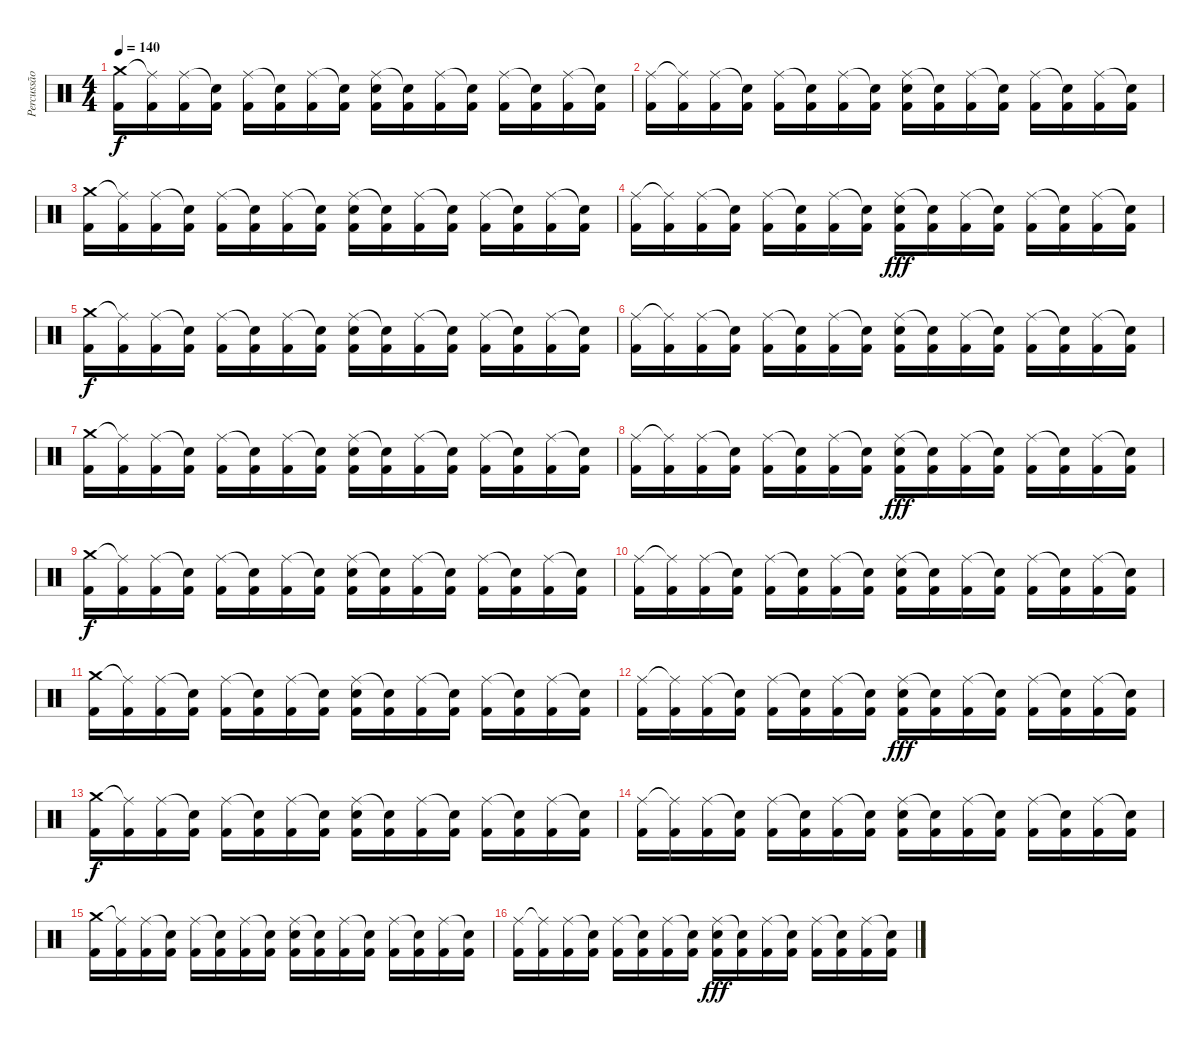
\track ("Percussão" "Percussão") {instrument percussion}
\staff {score}
\articulation defaults
\ts (4 4)
\tempo 140
\clef neutral
\ks c
("Crash medium (hit)" "Kick (hit) 2").16{dy f} ("Ride (middle)"{t} "Kick (hit) 2").16 ("Ride (middle)" "Kick (hit) 2").16 ("Snare (hit)"{t} "Kick (hit) 2").16 ("Ride (middle)" "Kick (hit) 2").16 ("Snare (hit)"{t} "Kick (hit) 2").16 ("Ride (middle)" "Kick (hit) 2").16 ("Snare (hit)"{t} "Kick (hit) 2").16 ("Ride (middle)" "Electric Snare (hit)" "Kick (hit) 2").16 ("Snare (hit)"{t} "Kick (hit) 2").16 ("Ride (middle)" "Kick (hit) 2").16 ("Snare (hit)"{t} "Kick (hit) 2").16 ("Ride (middle)" "Kick (hit) 2").16 ("Snare (hit)"{t} "Kick (hit) 2").16 ("Ride (middle)" "Kick (hit) 2").16 ("Snare (hit)"{t} "Kick (hit) 2").16 |
("Ride (middle)" "Kick (hit) 2").16 ("Ride (middle)"{t} "Kick (hit) 2").16 ("Ride (middle)" "Kick (hit) 2").16 ("Snare (hit)"{t} "Kick (hit) 2").16 ("Ride (middle)" "Kick (hit) 2").16 ("Snare (hit)"{t} "Kick (hit) 2").16 ("Ride (middle)" "Kick (hit) 2").16 ("Snare (hit)"{t} "Kick (hit) 2").16 ("Ride (middle)" "Electric Snare (hit)" "Kick (hit) 2").16 ("Snare (hit)"{t} "Kick (hit) 2").16 ("Ride (middle)" "Kick (hit) 2").16 ("Snare (hit)"{t} "Kick (hit) 2").16 ("Ride (middle)" "Kick (hit) 2").16 ("Snare (hit)"{t} "Kick (hit) 2").16 ("Ride (middle)" "Kick (hit) 2").16 ("Snare (hit)"{t} "Kick (hit) 2").16 |
("Crash medium (hit)" "Kick (hit) 2").16 ("Ride (middle)"{t} "Kick (hit) 2").16 ("Ride (middle)" "Kick (hit) 2").16 ("Snare (hit)"{t} "Kick (hit) 2").16 ("Ride (middle)" "Kick (hit) 2").16 ("Snare (hit)"{t} "Kick (hit) 2").16 ("Ride (middle)" "Kick (hit) 2").16 ("Snare (hit)"{t} "Kick (hit) 2").16 ("Ride (middle)" "Electric Snare (hit)" "Kick (hit) 2").16 ("Snare (hit)"{t} "Kick (hit) 2").16 ("Ride (middle)" "Kick (hit) 2").16 ("Snare (hit)"{t} "Kick (hit) 2").16 ("Ride (middle)" "Kick (hit) 2").16 ("Snare (hit)"{t} "Kick (hit) 2").16 ("Ride (middle)" "Kick (hit) 2").16 ("Snare (hit)"{t} "Kick (hit) 2").16 |
("Ride (middle)" "Kick (hit) 2").16 ("Ride (middle)"{t} "Kick (hit) 2").16 ("Ride (middle)" "Kick (hit) 2").16 ("Snare (hit)"{t} "Kick (hit) 2").16 ("Ride (middle)" "Kick (hit) 2").16 ("Snare (hit)"{t} "Kick (hit) 2").16 ("Ride (middle)" "Kick (hit) 2").16 ("Snare (hit)"{t} "Kick (hit) 2").16 ("Ride (middle)" "Electric Snare (hit)" "Kick (hit) 2").16{dy fff} ("Snare (hit)"{t} "Kick (hit) 2").16 ("Ride (middle)" "Kick (hit) 2").16 ("Snare (hit)"{t} "Kick (hit) 2").16 ("Ride (middle)" "Kick (hit) 2").16 ("Snare (hit)"{t} "Kick (hit) 2").16 ("Ride (middle)" "Kick (hit) 2").16 ("Snare (hit)"{t} "Kick (hit) 2").16 |
("Crash medium (hit)" "Kick (hit) 2").16{dy f} ("Ride (middle)"{t} "Kick (hit) 2").16 ("Ride (middle)" "Kick (hit) 2").16 ("Snare (hit)"{t} "Kick (hit) 2").16 ("Ride (middle)" "Kick (hit) 2").16 ("Snare (hit)"{t} "Kick (hit) 2").16 ("Ride (middle)" "Kick (hit) 2").16 ("Snare (hit)"{t} "Kick (hit) 2").16 ("Ride (middle)" "Electric Snare (hit)" "Kick (hit) 2").16 ("Snare (hit)"{t} "Kick (hit) 2").16 ("Ride (middle)" "Kick (hit) 2").16 ("Snare (hit)"{t} "Kick (hit) 2").16 ("Ride (middle)" "Kick (hit) 2").16 ("Snare (hit)"{t} "Kick (hit) 2").16 ("Ride (middle)" "Kick (hit) 2").16 ("Snare (hit)"{t} "Kick (hit) 2").16 |
("Ride (middle)" "Kick (hit) 2").16 ("Ride (middle)"{t} "Kick (hit) 2").16 ("Ride (middle)" "Kick (hit) 2").16 ("Snare (hit)"{t} "Kick (hit) 2").16 ("Ride (middle)" "Kick (hit) 2").16 ("Snare (hit)"{t} "Kick (hit) 2").16 ("Ride (middle)" "Kick (hit) 2").16 ("Snare (hit)"{t} "Kick (hit) 2").16 ("Ride (middle)" "Electric Snare (hit)" "Kick (hit) 2").16 ("Snare (hit)"{t} "Kick (hit) 2").16 ("Ride (middle)" "Kick (hit) 2").16 ("Snare (hit)"{t} "Kick (hit) 2").16 ("Ride (middle)" "Kick (hit) 2").16 ("Snare (hit)"{t} "Kick (hit) 2").16 ("Ride (middle)" "Kick (hit) 2").16 ("Snare (hit)"{t} "Kick (hit) 2").16 |
("Crash medium (hit)" "Kick (hit) 2").16 ("Ride (middle)"{t} "Kick (hit) 2").16 ("Ride (middle)" "Kick (hit) 2").16 ("Snare (hit)"{t} "Kick (hit) 2").16 ("Ride (middle)" "Kick (hit) 2").16 ("Snare (hit)"{t} "Kick (hit) 2").16 ("Ride (middle)" "Kick (hit) 2").16 ("Snare (hit)"{t} "Kick (hit) 2").16 ("Ride (middle)" "Electric Snare (hit)" "Kick (hit) 2").16 ("Snare (hit)"{t} "Kick (hit) 2").16 ("Ride (middle)" "Kick (hit) 2").16 ("Snare (hit)"{t} "Kick (hit) 2").16 ("Ride (middle)" "Kick (hit) 2").16 ("Snare (hit)"{t} "Kick (hit) 2").16 ("Ride (middle)" "Kick (hit) 2").16 ("Snare (hit)"{t} "Kick (hit) 2").16 |
("Ride (middle)" "Kick (hit) 2").16 ("Ride (middle)"{t} "Kick (hit) 2").16 ("Ride (middle)" "Kick (hit) 2").16 ("Snare (hit)"{t} "Kick (hit) 2").16 ("Ride (middle)" "Kick (hit) 2").16 ("Snare (hit)"{t} "Kick (hit) 2").16 ("Ride (middle)" "Kick (hit) 2").16 ("Snare (hit)"{t} "Kick (hit) 2").16 ("Ride (middle)" "Electric Snare (hit)" "Kick (hit) 2").16{dy fff} ("Snare (hit)"{t} "Kick (hit) 2").16 ("Ride (middle)" "Kick (hit) 2").16 ("Snare (hit)"{t} "Kick (hit) 2").16 ("Ride (middle)" "Kick (hit) 2").16 ("Snare (hit)"{t} "Kick (hit) 2").16 ("Ride (middle)" "Kick (hit) 2").16 ("Snare (hit)"{t} "Kick (hit) 2").16 |
("Crash medium (hit)" "Kick (hit) 2").16{dy f} ("Ride (middle)"{t} "Kick (hit) 2").16 ("Ride (middle)" "Kick (hit) 2").16 ("Snare (hit)"{t} "Kick (hit) 2").16 ("Ride (middle)" "Kick (hit) 2").16 ("Snare (hit)"{t} "Kick (hit) 2").16 ("Ride (middle)" "Kick (hit) 2").16 ("Snare (hit)"{t} "Kick (hit) 2").16 ("Ride (middle)" "Electric Snare (hit)" "Kick (hit) 2").16 ("Snare (hit)"{t} "Kick (hit) 2").16 ("Ride (middle)" "Kick (hit) 2").16 ("Snare (hit)"{t} "Kick (hit) 2").16 ("Ride (middle)" "Kick (hit) 2").16 ("Snare (hit)"{t} "Kick (hit) 2").16 ("Ride (middle)" "Kick (hit) 2").16 ("Snare (hit)"{t} "Kick (hit) 2").16 |
("Ride (middle)" "Kick (hit) 2").16 ("Ride (middle)"{t} "Kick (hit) 2").16 ("Ride (middle)" "Kick (hit) 2").16 ("Snare (hit)"{t} "Kick (hit) 2").16 ("Ride (middle)" "Kick (hit) 2").16 ("Snare (hit)"{t} "Kick (hit) 2").16 ("Ride (middle)" "Kick (hit) 2").16 ("Snare (hit)"{t} "Kick (hit) 2").16 ("Ride (middle)" "Electric Snare (hit)" "Kick (hit) 2").16 ("Snare (hit)"{t} "Kick (hit) 2").16 ("Ride (middle)" "Kick (hit) 2").16 ("Snare (hit)"{t} "Kick (hit) 2").16 ("Ride (middle)" "Kick (hit) 2").16 ("Snare (hit)"{t} "Kick (hit) 2").16 ("Ride (middle)" "Kick (hit) 2").16 ("Snare (hit)"{t} "Kick (hit) 2").16 |
("Crash medium (hit)" "Kick (hit) 2").16 ("Ride (middle)"{t} "Kick (hit) 2").16 ("Ride (middle)" "Kick (hit) 2").16 ("Snare (hit)"{t} "Kick (hit) 2").16 ("Ride (middle)" "Kick (hit) 2").16 ("Snare (hit)"{t} "Kick (hit) 2").16 ("Ride (middle)" "Kick (hit) 2").16 ("Snare (hit)"{t} "Kick (hit) 2").16 ("Ride (middle)" "Electric Snare (hit)" "Kick (hit) 2").16 ("Snare (hit)"{t} "Kick (hit) 2").16 ("Ride (middle)" "Kick (hit) 2").16 ("Snare (hit)"{t} "Kick (hit) 2").16 ("Ride (middle)" "Kick (hit) 2").16 ("Snare (hit)"{t} "Kick (hit) 2").16 ("Ride (middle)" "Kick (hit) 2").16 ("Snare (hit)"{t} "Kick (hit) 2").16 |
("Ride (middle)" "Kick (hit) 2").16 ("Ride (middle)"{t} "Kick (hit) 2").16 ("Ride (middle)" "Kick (hit) 2").16 ("Snare (hit)"{t} "Kick (hit) 2").16 ("Ride (middle)" "Kick (hit) 2").16 ("Snare (hit)"{t} "Kick (hit) 2").16 ("Ride (middle)" "Kick (hit) 2").16 ("Snare (hit)"{t} "Kick (hit) 2").16 ("Ride (middle)" "Electric Snare (hit)" "Kick (hit) 2").16{dy fff} ("Snare (hit)"{t} "Kick (hit) 2").16 ("Ride (middle)" "Kick (hit) 2").16 ("Snare (hit)"{t} "Kick (hit) 2").16 ("Ride (middle)" "Kick (hit) 2").16 ("Snare (hit)"{t} "Kick (hit) 2").16 ("Ride (middle)" "Kick (hit) 2").16 ("Snare (hit)"{t} "Kick (hit) 2").16 |
("Crash medium (hit)" "Kick (hit) 2").16{dy f} ("Ride (middle)"{t} "Kick (hit) 2").16 ("Ride (middle)" "Kick (hit) 2").16 ("Snare (hit)"{t} "Kick (hit) 2").16 ("Ride (middle)" "Kick (hit) 2").16 ("Snare (hit)"{t} "Kick (hit) 2").16 ("Ride (middle)" "Kick (hit) 2").16 ("Snare (hit)"{t} "Kick (hit) 2").16 ("Ride (middle)" "Electric Snare (hit)" "Kick (hit) 2").16 ("Snare (hit)"{t} "Kick (hit) 2").16 ("Ride (middle)" "Kick (hit) 2").16 ("Snare (hit)"{t} "Kick (hit) 2").16 ("Ride (middle)" "Kick (hit) 2").16 ("Snare (hit)"{t} "Kick (hit) 2").16 ("Ride (middle)" "Kick (hit) 2").16 ("Snare (hit)"{t} "Kick (hit) 2").16 |
("Ride (middle)" "Kick (hit) 2").16 ("Ride (middle)"{t} "Kick (hit) 2").16 ("Ride (middle)" "Kick (hit) 2").16 ("Snare (hit)"{t} "Kick (hit) 2").16 ("Ride (middle)" "Kick (hit) 2").16 ("Snare (hit)"{t} "Kick (hit) 2").16 ("Ride (middle)" "Kick (hit) 2").16 ("Snare (hit)"{t} "Kick (hit) 2").16 ("Ride (middle)" "Electric Snare (hit)" "Kick (hit) 2").16 ("Snare (hit)"{t} "Kick (hit) 2").16 ("Ride (middle)" "Kick (hit) 2").16 ("Snare (hit)"{t} "Kick (hit) 2").16 ("Ride (middle)" "Kick (hit) 2").16 ("Snare (hit)"{t} "Kick (hit) 2").16 ("Ride (middle)" "Kick (hit) 2").16 ("Snare (hit)"{t} "Kick (hit) 2").16 |
("Crash medium (hit)" "Kick (hit) 2").16 ("Ride (middle)"{t} "Kick (hit) 2").16 ("Ride (middle)" "Kick (hit) 2").16 ("Snare (hit)"{t} "Kick (hit) 2").16 ("Ride (middle)" "Kick (hit) 2").16 ("Snare (hit)"{t} "Kick (hit) 2").16 ("Ride (middle)" "Kick (hit) 2").16 ("Snare (hit)"{t} "Kick (hit) 2").16 ("Ride (middle)" "Electric Snare (hit)" "Kick (hit) 2").16 ("Snare (hit)"{t} "Kick (hit) 2").16 ("Ride (middle)" "Kick (hit) 2").16 ("Snare (hit)"{t} "Kick (hit) 2").16 ("Ride (middle)" "Kick (hit) 2").16 ("Snare (hit)"{t} "Kick (hit) 2").16 ("Ride (middle)" "Kick (hit) 2").16 ("Snare (hit)"{t} "Kick (hit) 2").16 |
("Ride (middle)" "Kick (hit) 2").16 ("Ride (middle)"{t} "Kick (hit) 2").16 ("Ride (middle)" "Kick (hit) 2").16 ("Snare (hit)"{t} "Kick (hit) 2").16 ("Ride (middle)" "Kick (hit) 2").16 ("Snare (hit)"{t} "Kick (hit) 2").16 ("Ride (middle)" "Kick (hit) 2").16 ("Snare (hit)"{t} "Kick (hit) 2").16 ("Ride (middle)" "Electric Snare (hit)" "Kick (hit) 2").16{dy fff} ("Snare (hit)"{t} "Kick (hit) 2").16 ("Ride (middle)" "Kick (hit) 2").16 ("Snare (hit)"{t} "Kick (hit) 2").16 ("Ride (middle)" "Kick (hit) 2").16 ("Snare (hit)"{t} "Kick (hit) 2").16 ("Ride (middle)" "Kick (hit) 2").16 ("Snare (hit)"{t} "Kick (hit) 2").16
